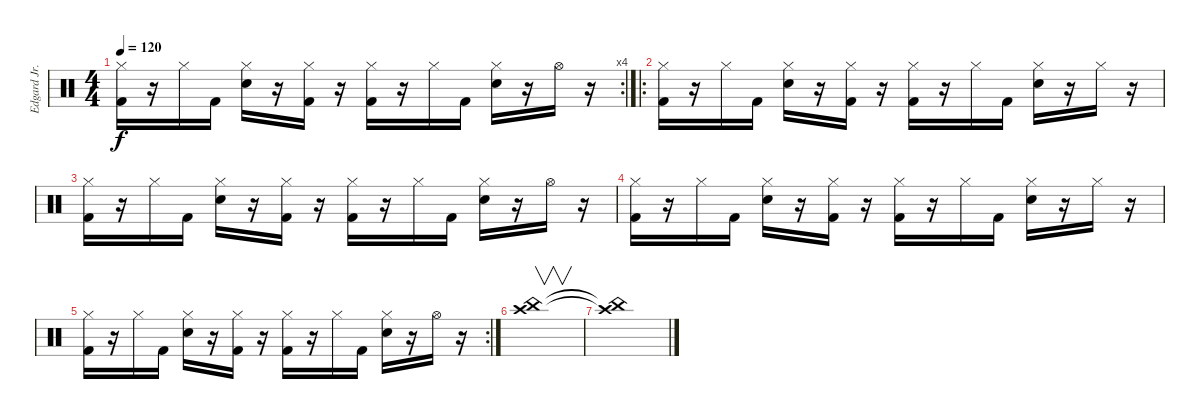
\track ("Edgard Jr. - ( Drum )" "Edgard Jr.") {instrument percussion}
\staff {score}
\articulation defaults
\rc 4
\ts (4 4)
\tempo 120
\clef neutral
\ks c
("Hi-Hat (closed)" "Kick (hit) 2").16{dy f} r.16 "Hi-Hat (closed)".16 "Kick (hit) 2".16 ("Electric Snare (hit)" "Hi-Hat (closed)").16 r.16 ("Kick (hit) 2" "Hi-Hat (closed)").16 r.16 ("Kick (hit) 2" "Hi-Hat (closed)").16 r.16 "Hi-Hat (closed)".16 "Kick (hit) 2".16 ("Electric Snare (hit)" "Hi-Hat (closed)").16 r.16 "Hi-Hat (open)".16 r.16 |
\ro
("Kick (hit) 2" "Hi-Hat (closed)").16 r.16 "Hi-Hat (closed)".16 "Kick (hit) 2".16 ("Electric Snare (hit)" "Hi-Hat (closed)").16 r.16 ("Kick (hit) 2" "Hi-Hat (closed)").16 r.16 ("Kick (hit) 2" "Hi-Hat (closed)").16 r.16 "Hi-Hat (closed)".16 "Kick (hit) 2".16 ("Electric Snare (hit)" "Hi-Hat (closed)").16 r.16 "Hi-Hat (closed)".16 r.16 |
("Hi-Hat (closed)" "Kick (hit) 2").16 r.16 "Hi-Hat (closed)".16 "Kick (hit) 2".16 ("Electric Snare (hit)" "Hi-Hat (closed)").16 r.16 ("Kick (hit) 2" "Hi-Hat (closed)").16 r.16 ("Kick (hit) 2" "Hi-Hat (closed)").16 r.16 "Hi-Hat (closed)".16 "Kick (hit) 2".16 ("Electric Snare (hit)" "Hi-Hat (closed)").16 r.16 "Hi-Hat (open)".16 r.16 |
("Kick (hit) 2" "Hi-Hat (closed)").16 r.16 "Hi-Hat (closed)".16 "Kick (hit) 2".16 ("Electric Snare (hit)" "Hi-Hat (closed)").16 r.16 ("Kick (hit) 2" "Hi-Hat (closed)").16 r.16 ("Kick (hit) 2" "Hi-Hat (closed)").16 r.16 "Hi-Hat (closed)".16 "Kick (hit) 2".16 ("Electric Snare (hit)" "Hi-Hat (closed)").16 r.16 "Hi-Hat (closed)".16 r.16 |
\rc 2
("Hi-Hat (closed)" "Kick (hit) 2").16 r.16 "Hi-Hat (closed)".16 "Kick (hit) 2".16 ("Electric Snare (hit)" "Hi-Hat (closed)").16 r.16 ("Kick (hit) 2" "Hi-Hat (closed)").16 r.16 ("Kick (hit) 2" "Hi-Hat (closed)").16 r.16 "Hi-Hat (closed)".16 "Kick (hit) 2".16 ("Electric Snare (hit)" "Hi-Hat (closed)").16 r.16 "Hi-Hat (open)".16 r.16 |
("Crash high (hit)" "China (hit)").1{v} |
("Crash high (hit)"{t} "China (hit)"{t}).1
